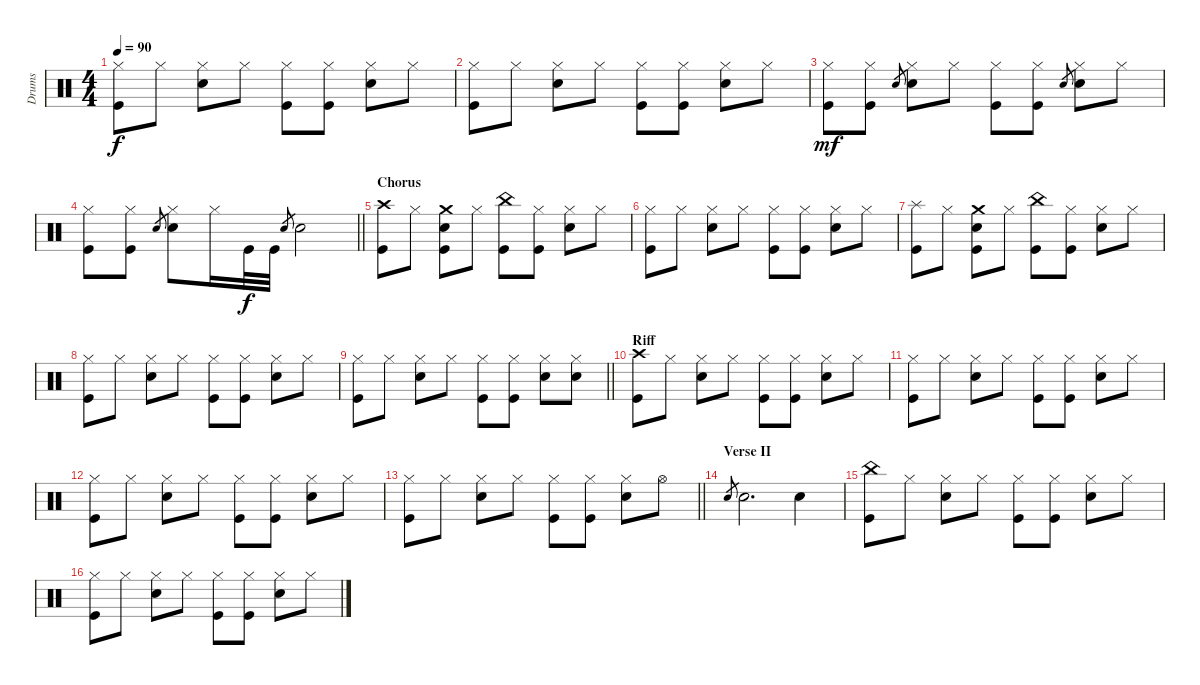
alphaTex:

\track ("Drums" "Drums") {instrument percussion}
\staff {score}
\articulation defaults
\ts (4 4)
\tempo 90
\clef neutral
\ks c
("Kick (hit)" "Hi-Hat (closed)").8{dy f} "Hi-Hat (closed)".8 ("Snare (hit) 2" "Hi-Hat (closed)").8 "Hi-Hat (closed)".8 ("Kick (hit)" "Hi-Hat (closed)").8 ("Kick (hit)" "Hi-Hat (closed)").8 ("Snare (hit) 2" "Hi-Hat (closed)").8 "Hi-Hat (closed)".8 |
("Kick (hit)" "Hi-Hat (closed)").8 "Hi-Hat (closed)".8 ("Snare (hit) 2" "Hi-Hat (closed)").8 "Hi-Hat (closed)".8 ("Kick (hit)" "Hi-Hat (closed)").8 ("Kick (hit)" "Hi-Hat (closed)").8 ("Snare (hit) 2" "Hi-Hat (closed)").8 "Hi-Hat (closed)".8 |
("Kick (hit)" "Hi-Hat (closed)").8{dy mf} ("Kick (hit)" "Hi-Hat (closed)").8 "Snare (hit) 2".8{gr} ("Snare (hit) 2" "Hi-Hat (closed)").8 "Hi-Hat (closed)".8 ("Kick (hit)" "Hi-Hat (closed)").8 ("Kick (hit)" "Hi-Hat (closed)").8 "Snare (hit) 2".8{gr} ("Snare (hit) 2" "Hi-Hat (closed)").8 "Hi-Hat (closed)".8 |
\barLineRight lightlight
("Kick (hit)" "Hi-Hat (closed)").8 ("Kick (hit)" "Hi-Hat (closed)").8 "Snare (hit) 2".8{gr} ("Snare (hit) 2" "Hi-Hat (closed)").8 "Hi-Hat (closed)".16 "Kick (hit)".32{dy f} "Kick (hit)".32 "Snare (hit) 2".8{gr} "Snare (hit) 2".2 |
\section ("" "Chorus")
("Crash high (hit)" "Kick (hit)").8 "Hi-Hat (closed)".8 ("Kick (hit)" "Snare (hit) 2" "Crash medium (hit)").8 "Hi-Hat (closed)".8 ("Kick (hit)" "China (hit)").8 ("Kick (hit)" "Hi-Hat (closed)").8 ("Snare (hit) 2" "Hi-Hat (closed)").8 "Hi-Hat (closed)".8 |
("Kick (hit)" "Hi-Hat (closed)").8 "Hi-Hat (closed)".8 ("Snare (hit) 2" "Hi-Hat (closed)").8 "Hi-Hat (closed)".8 ("Kick (hit)" "Hi-Hat (closed)").8 ("Kick (hit)" "Hi-Hat (closed)").8 ("Snare (hit) 2" "Hi-Hat (closed)").8 "Hi-Hat (closed)".8 |
("Splash (hit)" "Kick (hit)").8 "Hi-Hat (closed)".8 ("Kick (hit)" "Snare (hit) 2" "Crash medium (hit)").8 "Hi-Hat (closed)".8 ("Kick (hit)" "China (hit)").8 ("Kick (hit)" "Hi-Hat (closed)").8 ("Snare (hit) 2" "Hi-Hat (closed)").8 "Hi-Hat (closed)".8 |
("Kick (hit)" "Hi-Hat (closed)").8 "Hi-Hat (closed)".8 ("Snare (hit) 2" "Hi-Hat (closed)").8 "Hi-Hat (closed)".8 ("Kick (hit)" "Hi-Hat (closed)").8 ("Kick (hit)" "Hi-Hat (closed)").8 ("Snare (hit) 2" "Hi-Hat (closed)").8 "Hi-Hat (closed)".8 |
\barLineRight lightlight
("Kick (hit)" "Hi-Hat (closed)").8 "Hi-Hat (closed)".8 ("Snare (hit) 2" "Hi-Hat (closed)").8 "Hi-Hat (closed)".8 ("Kick (hit)" "Hi-Hat (closed)").8 ("Kick (hit)" "Hi-Hat (closed)").8 ("Snare (hit) 2" "Hi-Hat (closed)").8 ("Hi-Hat (closed)" "Snare (hit) 2").8 |
\section ("" "Riff")
("Kick (hit)" "Crash high (hit)").8 "Hi-Hat (closed)".8 ("Snare (hit) 2" "Hi-Hat (closed)").8 "Hi-Hat (closed)".8 ("Kick (hit)" "Hi-Hat (closed)").8 ("Kick (hit)" "Hi-Hat (closed)").8 ("Snare (hit) 2" "Hi-Hat (closed)").8 "Hi-Hat (closed)".8 |
("Kick (hit)" "Hi-Hat (closed)").8 "Hi-Hat (closed)".8 ("Snare (hit) 2" "Hi-Hat (closed)").8 "Hi-Hat (closed)".8 ("Kick (hit)" "Hi-Hat (closed)").8 ("Kick (hit)" "Hi-Hat (closed)").8 ("Snare (hit) 2" "Hi-Hat (closed)").8 "Hi-Hat (closed)".8 |
("Kick (hit)" "Hi-Hat (closed)").8 "Hi-Hat (closed)".8 ("Snare (hit) 2" "Hi-Hat (closed)").8 "Hi-Hat (closed)".8 ("Kick (hit)" "Hi-Hat (closed)").8 ("Kick (hit)" "Hi-Hat (closed)").8 ("Snare (hit) 2" "Hi-Hat (closed)").8 "Hi-Hat (closed)".8 |
\barLineRight lightlight
("Kick (hit)" "Hi-Hat (closed)").8 "Hi-Hat (closed)".8 ("Snare (hit) 2" "Hi-Hat (closed)").8 "Hi-Hat (closed)".8 ("Kick (hit)" "Hi-Hat (closed)").8 ("Kick (hit)" "Hi-Hat (closed)").8 ("Snare (hit) 2" "Hi-Hat (closed)").8 "Hi-Hat (open)".8 |
\section ("" "Verse II")
"Snare (hit) 2".8{gr} "Snare (hit) 2".2{d} "Snare (hit) 2".4 |
("Kick (hit)" "China (hit)").8 "Hi-Hat (closed)".8 ("Snare (hit) 2" "Hi-Hat (closed)").8 "Hi-Hat (closed)".8 ("Kick (hit)" "Hi-Hat (closed)").8 ("Kick (hit)" "Hi-Hat (closed)").8 ("Snare (hit) 2" "Hi-Hat (closed)").8 "Hi-Hat (closed)".8 |
("Kick (hit)" "Hi-Hat (closed)").8 "Hi-Hat (closed)".8 ("Snare (hit) 2" "Hi-Hat (closed)").8 "Hi-Hat (closed)".8 ("Kick (hit)" "Hi-Hat (closed)").8 ("Kick (hit)" "Hi-Hat (closed)").8 ("Snare (hit) 2" "Hi-Hat (closed)").8 "Hi-Hat (closed)".8
